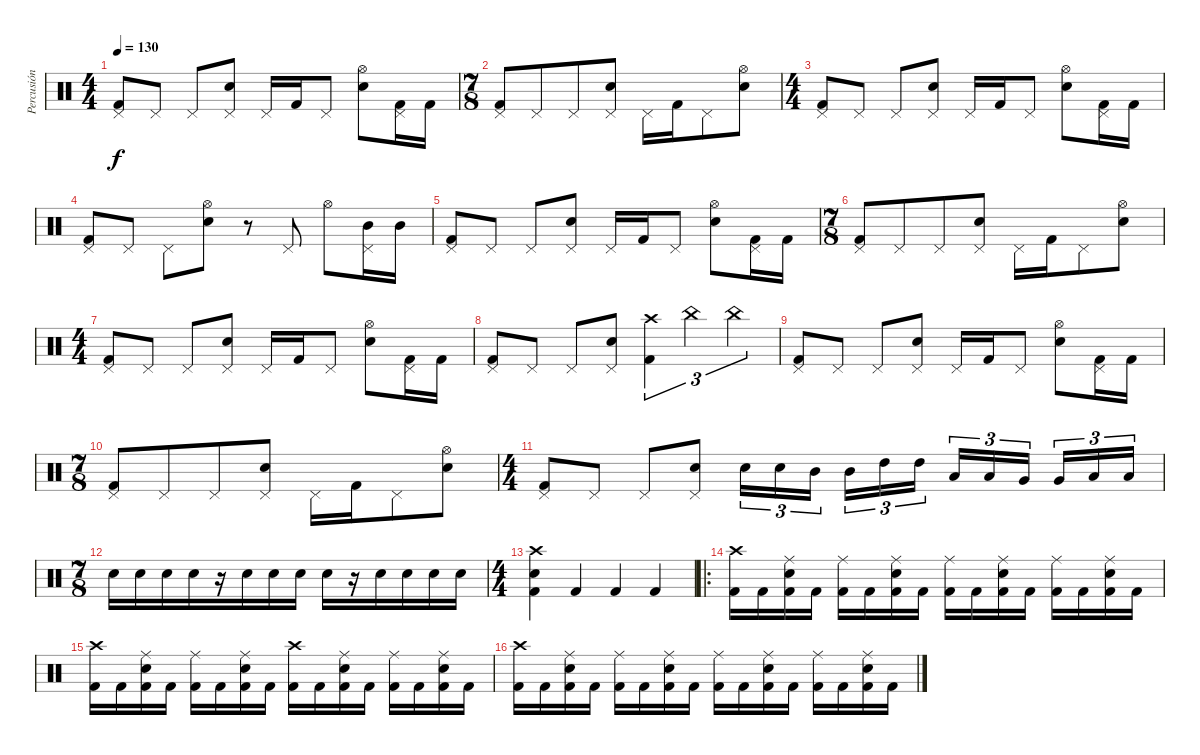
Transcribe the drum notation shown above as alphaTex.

\track ("Percusión" "Percusión") {instrument percussion}
\staff {score}
\articulation defaults
\ts (4 4)
\tempo 130
\clef neutral
\ks c
("Pedal Hi-Hat (hit)" "Kick (hit) 2").8{dy f} "Pedal Hi-Hat (hit)".8 "Pedal Hi-Hat (hit)".8 ("Pedal Hi-Hat (hit)" "Snare (hit) 2").8 "Pedal Hi-Hat (hit)".16 "Kick (hit) 2".16 "Pedal Hi-Hat (hit)".8 ("Hi-Hat (open)" "Snare (hit) 2").8 ("Pedal Hi-Hat (hit)" "Kick (hit) 2").16 "Kick (hit) 2".16 |
\ts (7 8)
("Pedal Hi-Hat (hit)" "Kick (hit) 2").8 "Pedal Hi-Hat (hit)".8 "Pedal Hi-Hat (hit)".8 ("Pedal Hi-Hat (hit)" "Snare (hit) 2").8 "Pedal Hi-Hat (hit)".16 "Kick (hit) 2".16 "Pedal Hi-Hat (hit)".8 ("Hi-Hat (open)" "Snare (hit) 2").8 |
\ts (4 4)
("Pedal Hi-Hat (hit)" "Kick (hit) 2").8 "Pedal Hi-Hat (hit)".8 "Pedal Hi-Hat (hit)".8 ("Pedal Hi-Hat (hit)" "Snare (hit) 2").8 "Pedal Hi-Hat (hit)".16 "Kick (hit) 2".16 "Pedal Hi-Hat (hit)".8 ("Hi-Hat (open)" "Snare (hit) 2").8 ("Pedal Hi-Hat (hit)" "Kick (hit) 2").16 "Kick (hit) 2".16 |
("Pedal Hi-Hat (hit)" "Kick (hit) 2").8 "Pedal Hi-Hat (hit)".8 "Pedal Hi-Hat (hit)".8 ("Hi-Hat (open)" "Snare (hit) 2").8 r.8 "Pedal Hi-Hat (hit)".8 "Hi-Hat (open)".8 ("Pedal Hi-Hat (hit)" "Mid Tom (hit)").16 "Mid Tom (hit)".16 |
("Pedal Hi-Hat (hit)" "Kick (hit) 2").8 "Pedal Hi-Hat (hit)".8 "Pedal Hi-Hat (hit)".8 ("Pedal Hi-Hat (hit)" "Snare (hit) 2").8 "Pedal Hi-Hat (hit)".16 "Kick (hit) 2".16 "Pedal Hi-Hat (hit)".8 ("Hi-Hat (open)" "Snare (hit) 2").8 ("Pedal Hi-Hat (hit)" "Kick (hit) 2").16 "Kick (hit) 2".16 |
\ts (7 8)
("Pedal Hi-Hat (hit)" "Kick (hit) 2").8 "Pedal Hi-Hat (hit)".8 "Pedal Hi-Hat (hit)".8 ("Pedal Hi-Hat (hit)" "Snare (hit) 2").8 "Pedal Hi-Hat (hit)".16 "Kick (hit) 2".16 "Pedal Hi-Hat (hit)".8 ("Hi-Hat (open)" "Snare (hit) 2").8 |
\ts (4 4)
("Pedal Hi-Hat (hit)" "Kick (hit) 2").8 "Pedal Hi-Hat (hit)".8 "Pedal Hi-Hat (hit)".8 ("Pedal Hi-Hat (hit)" "Snare (hit) 2").8 "Pedal Hi-Hat (hit)".16 "Kick (hit) 2".16 "Pedal Hi-Hat (hit)".8 ("Hi-Hat (open)" "Snare (hit) 2").8 ("Pedal Hi-Hat (hit)" "Kick (hit) 2").16 "Kick (hit) 2".16 |
("Pedal Hi-Hat (hit)" "Kick (hit) 2").8 "Pedal Hi-Hat (hit)".8 "Pedal Hi-Hat (hit)".8 ("Pedal Hi-Hat (hit)" "Snare (hit) 2").8 ("Crash high (hit)" "Kick (hit) 2").4{tu (3 2)} "China (hit)".4{tu (3 2)} "China (hit)".4{tu (3 2)} |
("Pedal Hi-Hat (hit)" "Kick (hit) 2").8 "Pedal Hi-Hat (hit)".8 "Pedal Hi-Hat (hit)".8 ("Pedal Hi-Hat (hit)" "Snare (hit) 2").8 "Pedal Hi-Hat (hit)".16 "Kick (hit) 2".16 "Pedal Hi-Hat (hit)".8 ("Hi-Hat (open)" "Snare (hit) 2").8 ("Pedal Hi-Hat (hit)" "Kick (hit) 2").16 "Kick (hit) 2".16 |
\ts (7 8)
("Pedal Hi-Hat (hit)" "Kick (hit) 2").8 "Pedal Hi-Hat (hit)".8 "Pedal Hi-Hat (hit)".8 ("Pedal Hi-Hat (hit)" "Snare (hit) 2").8 "Pedal Hi-Hat (hit)".16 "Kick (hit) 2".16 "Pedal Hi-Hat (hit)".8 ("Hi-Hat (open)" "Snare (hit) 2").8 |
\ts (4 4)
("Pedal Hi-Hat (hit)" "Kick (hit) 2").8 "Pedal Hi-Hat (hit)".8 "Pedal Hi-Hat (hit)".8 ("Pedal Hi-Hat (hit)" "Snare (hit) 2").8 "Snare (hit) 2".16{tu (3 2)} "Snare (hit) 2".16{tu (3 2)} "Mid Tom (hit)".16{tu (3 2) beam splitsecondary} "Mid Tom (hit)".16{tu (3 2)} "High Tom (hit)".16{tu (3 2)} "High Tom (hit)".16{tu (3 2)} "Low Tom (hit)".16{tu (3 2)} "Low Tom (hit)".16{tu (3 2)} "Very Low Tom (hit)".16{tu (3 2) beam splitsecondary} "Very Low Tom (hit)".16{tu (3 2)} "Low Floor Tom (hit)".16{tu (3 2)} "Low Floor Tom (hit)".16{tu (3 2)} |
\ts (7 8)
"Snare (hit) 2".16 "Snare (hit) 2".16 "Snare (hit) 2".16 "Snare (hit) 2".16 r.16 "Snare (hit) 2".16 "Snare (hit) 2".16 "Snare (hit) 2".16 "Snare (hit) 2".16 r.16 "Snare (hit) 2".16 "Snare (hit) 2".16 "Snare (hit) 2".16 "Snare (hit) 2".16 |
\ts (4 4)
("Crash high (hit)" "Snare (hit) 2" "Kick (hit) 2").4 "Kick (hit) 2".4 "Kick (hit) 2".4 "Kick (hit) 2".4 |
\ro
("Crash high (hit)" "Kick (hit) 2").16 "Kick (hit) 2".16 ("Ride (middle)" "Snare (hit) 2" "Kick (hit) 2").16 "Kick (hit) 2".16 ("Ride (middle)" "Kick (hit) 2").16 "Kick (hit) 2".16 ("Ride (middle)" "Snare (hit) 2" "Kick (hit) 2").16 "Kick (hit) 2".16 ("Ride (middle)" "Kick (hit) 2").16 "Kick (hit) 2".16 ("Ride (middle)" "Snare (hit) 2" "Kick (hit) 2").16 "Kick (hit) 2".16 ("Ride (middle)" "Kick (hit) 2").16 "Kick (hit) 2".16 ("Ride (middle)" "Snare (hit) 2" "Kick (hit) 2").16 "Kick (hit) 2".16 |
("Crash high (hit)" "Kick (hit) 2").16 "Kick (hit) 2".16 ("Ride (middle)" "Snare (hit) 2" "Kick (hit) 2").16 "Kick (hit) 2".16 ("Ride (middle)" "Kick (hit) 2").16 "Kick (hit) 2".16 ("Ride (middle)" "Snare (hit) 2" "Kick (hit) 2").16 "Kick (hit) 2".16 ("Crash high (hit)" "Kick (hit) 2").16 "Kick (hit) 2".16 ("Ride (middle)" "Snare (hit) 2" "Kick (hit) 2").16 "Kick (hit) 2".16 ("Ride (middle)" "Kick (hit) 2").16 "Kick (hit) 2".16 ("Ride (middle)" "Snare (hit) 2" "Kick (hit) 2").16 "Kick (hit) 2".16 |
("Crash high (hit)" "Kick (hit) 2").16 "Kick (hit) 2".16 ("Ride (middle)" "Snare (hit) 2" "Kick (hit) 2").16 "Kick (hit) 2".16 ("Ride (middle)" "Kick (hit) 2").16 "Kick (hit) 2".16 ("Ride (middle)" "Snare (hit) 2" "Kick (hit) 2").16 "Kick (hit) 2".16 ("Ride (middle)" "Kick (hit) 2").16 "Kick (hit) 2".16 ("Ride (middle)" "Snare (hit) 2" "Kick (hit) 2").16 "Kick (hit) 2".16 ("Ride (middle)" "Kick (hit) 2").16 "Kick (hit) 2".16 ("Ride (middle)" "Snare (hit) 2" "Kick (hit) 2").16 "Kick (hit) 2".16
